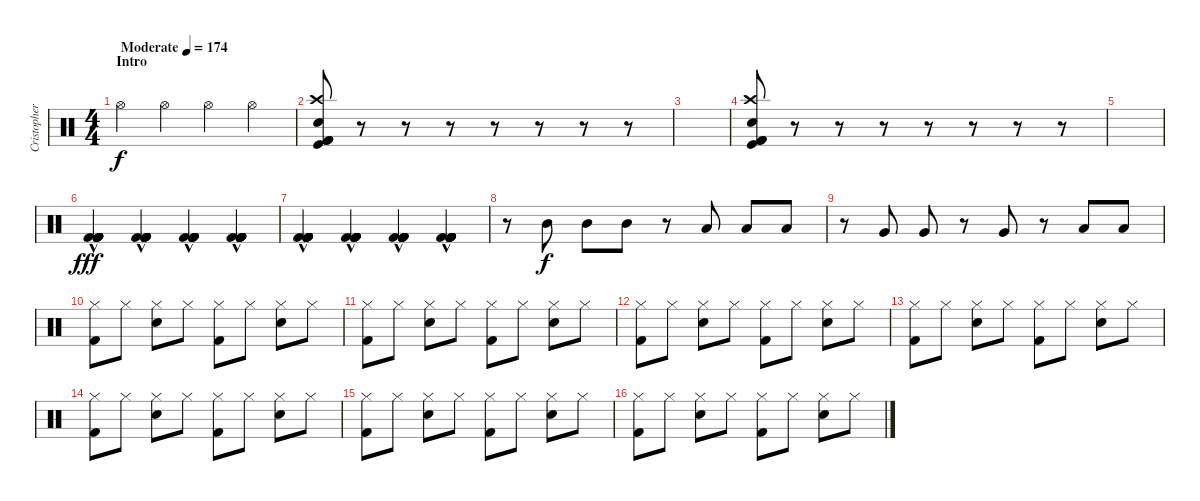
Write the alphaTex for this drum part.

\track ("Cristopher S. (Drums)" "Cristopher") {instrument percussion}
\staff {score}
\articulation defaults
\ts (4 4)
\section ("" "Intro")
\tempo (174 "Moderate")
\clef neutral
\ks c "Hi-Hat (open)".4{dy f} "Hi-Hat (open)".4 "Hi-Hat (open)".4 "Hi-Hat (open)".4
|
("Kick (hit)" "Kick (hit) 2" "Crash high (hit)" "Kick (hit) 2" "Snare (hit) 2").8 r.8 r.8 r.8 r.8 r.8 r.8 r.8 |
|
("Kick (hit)" "Kick (hit) 2" "Crash high (hit)" "Kick (hit) 2" "Snare (hit) 2").8 r.8 r.8 r.8 r.8 r.8 r.8 r.8 |
|
("Kick (hit) 2"{hac} "Kick (hit) 2" "Kick (hit) 2" "Kick (hit) 2" "Kick (hit) 2" "Kick (hit) 2").4{dy fff} ("Kick (hit) 2"{hac} "Kick (hit) 2" "Kick (hit) 2" "Kick (hit) 2" "Kick (hit) 2" "Kick (hit) 2").4 ("Kick (hit) 2"{hac} "Kick (hit) 2" "Kick (hit) 2" "Kick (hit) 2" "Kick (hit) 2" "Kick (hit) 2").4 ("Kick (hit) 2"{hac} "Kick (hit) 2" "Kick (hit) 2" "Kick (hit) 2" "Kick (hit) 2" "Kick (hit) 2").4 |
("Kick (hit) 2"{hac} "Kick (hit) 2" "Kick (hit) 2" "Kick (hit) 2" "Kick (hit) 2" "Kick (hit) 2").4 ("Kick (hit) 2"{hac} "Kick (hit) 2" "Kick (hit) 2" "Kick (hit) 2" "Kick (hit) 2" "Kick (hit) 2").4 ("Kick (hit) 2"{hac} "Kick (hit) 2" "Kick (hit) 2" "Kick (hit) 2" "Kick (hit) 2" "Kick (hit) 2").4 ("Kick (hit) 2"{hac} "Kick (hit) 2" "Kick (hit) 2" "Kick (hit) 2" "Kick (hit) 2" "Kick (hit) 2").4 |
r.8 "Mid Tom (hit)".8{dy f} "Mid Tom (hit)".8 "Mid Tom (hit)".8 r.8 "Low Tom (hit)".8 "Low Tom (hit)".8 "Low Tom (hit)".8 |
r.8 "Very Low Tom (hit)".8 "Very Low Tom (hit)".8 r.8 "Very Low Tom (hit)".8 r.8 "Low Floor Tom (hit)".8 "Low Floor Tom (hit)".8 |
("Kick (hit) 2" "Hi-Hat (closed)").8 "Hi-Hat (closed)".8 ("Electric Snare (hit)" "Hi-Hat (closed)").8 "Hi-Hat (closed)".8 ("Kick (hit) 2" "Hi-Hat (closed)").8 "Hi-Hat (closed)".8 ("Electric Snare (hit)" "Hi-Hat (closed)").8 "Hi-Hat (closed)".8 |
("Kick (hit) 2" "Hi-Hat (closed)").8 "Hi-Hat (closed)".8 ("Electric Snare (hit)" "Hi-Hat (closed)").8 "Hi-Hat (closed)".8 ("Kick (hit) 2" "Hi-Hat (closed)").8 "Hi-Hat (closed)".8 ("Electric Snare (hit)" "Hi-Hat (closed)").8 "Hi-Hat (closed)".8 |
("Kick (hit) 2" "Hi-Hat (closed)").8 "Hi-Hat (closed)".8 ("Electric Snare (hit)" "Hi-Hat (closed)").8 "Hi-Hat (closed)".8 ("Kick (hit) 2" "Hi-Hat (closed)").8 "Hi-Hat (closed)".8 ("Electric Snare (hit)" "Hi-Hat (closed)").8 "Hi-Hat (closed)".8 |
("Kick (hit) 2" "Hi-Hat (closed)").8 "Hi-Hat (closed)".8 ("Electric Snare (hit)" "Hi-Hat (closed)").8 "Hi-Hat (closed)".8 ("Kick (hit) 2" "Hi-Hat (closed)").8 "Hi-Hat (closed)".8 ("Electric Snare (hit)" "Hi-Hat (closed)").8 "Hi-Hat (closed)".8 |
("Kick (hit) 2" "Hi-Hat (closed)").8 "Hi-Hat (closed)".8 ("Electric Snare (hit)" "Hi-Hat (closed)").8 "Hi-Hat (closed)".8 ("Kick (hit) 2" "Hi-Hat (closed)").8 "Hi-Hat (closed)".8 ("Electric Snare (hit)" "Hi-Hat (closed)").8 "Hi-Hat (closed)".8 |
("Kick (hit) 2" "Hi-Hat (closed)").8 "Hi-Hat (closed)".8 ("Electric Snare (hit)" "Hi-Hat (closed)").8 "Hi-Hat (closed)".8 ("Kick (hit) 2" "Hi-Hat (closed)").8 "Hi-Hat (closed)".8 ("Electric Snare (hit)" "Hi-Hat (closed)").8 "Hi-Hat (closed)".8 |
("Kick (hit) 2" "Hi-Hat (closed)").8 "Hi-Hat (closed)".8 ("Electric Snare (hit)" "Hi-Hat (closed)").8 "Hi-Hat (closed)".8 ("Kick (hit) 2" "Hi-Hat (closed)").8 "Hi-Hat (closed)".8 ("Electric Snare (hit)" "Hi-Hat (closed)").8 "Hi-Hat (closed)".8
